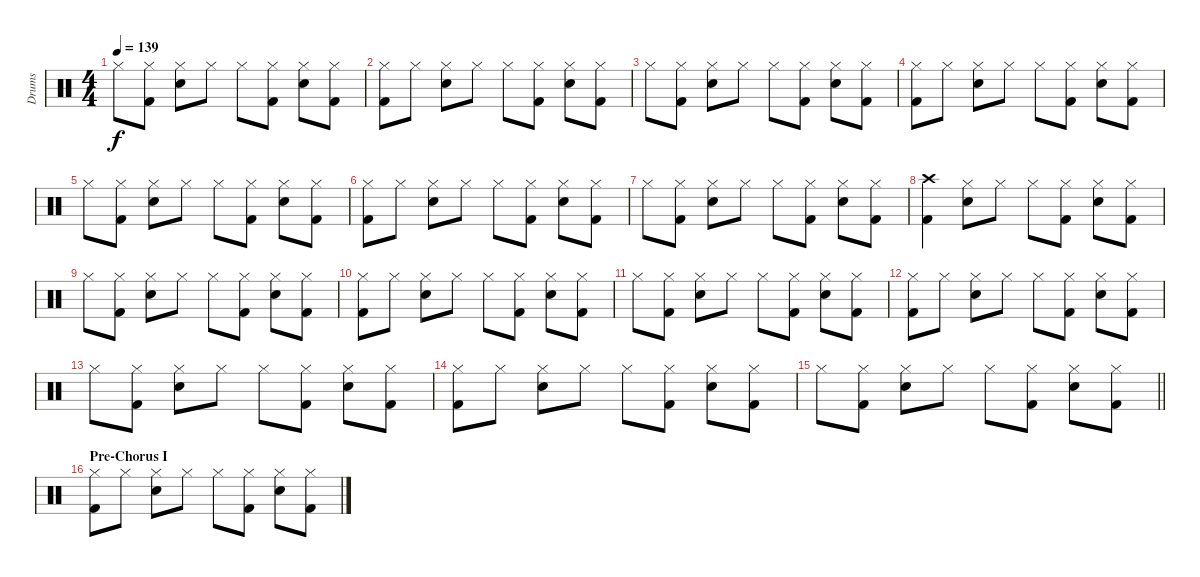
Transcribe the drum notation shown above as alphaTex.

\track ("Drums" "Drums") {instrument percussion}
\staff {score}
\articulation defaults
\ts (4 4)
\tempo 139
\clef neutral
\ks c "Hi-Hat (closed)".8{dy f}
("Hi-Hat (closed)" "Kick (hit) 2").8 ("Hi-Hat (closed)" "Snare (hit) 2").8 "Hi-Hat (closed)".8 "Hi-Hat (closed)".8 ("Hi-Hat (closed)" "Kick (hit) 2").8 ("Hi-Hat (closed)" "Snare (hit) 2").8 ("Hi-Hat (closed)" "Kick (hit) 2").8 |
("Hi-Hat (closed)" "Kick (hit) 2").8 "Hi-Hat (closed)".8 ("Hi-Hat (closed)" "Snare (hit) 2").8 "Hi-Hat (closed)".8 "Hi-Hat (closed)".8 ("Hi-Hat (closed)" "Kick (hit) 2").8 ("Hi-Hat (closed)" "Snare (hit) 2").8 ("Hi-Hat (closed)" "Kick (hit) 2").8 |
"Hi-Hat (closed)".8 ("Hi-Hat (closed)" "Kick (hit) 2").8 ("Hi-Hat (closed)" "Snare (hit) 2").8 "Hi-Hat (closed)".8 "Hi-Hat (closed)".8 ("Hi-Hat (closed)" "Kick (hit) 2").8 ("Hi-Hat (closed)" "Snare (hit) 2").8 ("Hi-Hat (closed)" "Kick (hit) 2").8 |
("Hi-Hat (closed)" "Kick (hit) 2").8 "Hi-Hat (closed)".8 ("Hi-Hat (closed)" "Snare (hit) 2").8 "Hi-Hat (closed)".8 "Hi-Hat (closed)".8 ("Hi-Hat (closed)" "Kick (hit) 2").8 ("Hi-Hat (closed)" "Snare (hit) 2").8 ("Hi-Hat (closed)" "Kick (hit) 2").8 |
"Hi-Hat (closed)".8 ("Hi-Hat (closed)" "Kick (hit) 2").8 ("Hi-Hat (closed)" "Snare (hit) 2").8 "Hi-Hat (closed)".8 "Hi-Hat (closed)".8 ("Hi-Hat (closed)" "Kick (hit) 2").8 ("Hi-Hat (closed)" "Snare (hit) 2").8 ("Hi-Hat (closed)" "Kick (hit) 2").8 |
("Hi-Hat (closed)" "Kick (hit) 2").8 "Hi-Hat (closed)".8 ("Hi-Hat (closed)" "Snare (hit) 2").8 "Hi-Hat (closed)".8 "Hi-Hat (closed)".8 ("Hi-Hat (closed)" "Kick (hit) 2").8 ("Hi-Hat (closed)" "Snare (hit) 2").8 ("Hi-Hat (closed)" "Kick (hit) 2").8 |
"Hi-Hat (closed)".8 ("Hi-Hat (closed)" "Kick (hit) 2").8 ("Hi-Hat (closed)" "Snare (hit) 2").8 "Hi-Hat (closed)".8 "Hi-Hat (closed)".8 ("Hi-Hat (closed)" "Kick (hit) 2").8 ("Hi-Hat (closed)" "Snare (hit) 2").8 ("Hi-Hat (closed)" "Kick (hit) 2").8 |
("Crash high (hit)" "Kick (hit) 2").4 ("Hi-Hat (closed)" "Snare (hit) 2").8 "Hi-Hat (closed)".8 "Hi-Hat (closed)".8 ("Hi-Hat (closed)" "Kick (hit) 2").8 ("Hi-Hat (closed)" "Snare (hit) 2").8 ("Hi-Hat (closed)" "Kick (hit) 2").8 |
"Hi-Hat (closed)".8 ("Hi-Hat (closed)" "Kick (hit) 2").8 ("Hi-Hat (closed)" "Snare (hit) 2").8 "Hi-Hat (closed)".8 "Hi-Hat (closed)".8 ("Hi-Hat (closed)" "Kick (hit) 2").8 ("Hi-Hat (closed)" "Snare (hit) 2").8 ("Hi-Hat (closed)" "Kick (hit) 2").8 |
("Hi-Hat (closed)" "Kick (hit) 2").8 "Hi-Hat (closed)".8 ("Hi-Hat (closed)" "Snare (hit) 2").8 "Hi-Hat (closed)".8 "Hi-Hat (closed)".8 ("Hi-Hat (closed)" "Kick (hit) 2").8 ("Hi-Hat (closed)" "Snare (hit) 2").8 ("Hi-Hat (closed)" "Kick (hit) 2").8 |
"Hi-Hat (closed)".8 ("Hi-Hat (closed)" "Kick (hit) 2").8 ("Hi-Hat (closed)" "Snare (hit) 2").8 "Hi-Hat (closed)".8 "Hi-Hat (closed)".8 ("Hi-Hat (closed)" "Kick (hit) 2").8 ("Hi-Hat (closed)" "Snare (hit) 2").8 ("Hi-Hat (closed)" "Kick (hit) 2").8 |
("Hi-Hat (closed)" "Kick (hit) 2").8 "Hi-Hat (closed)".8 ("Hi-Hat (closed)" "Snare (hit) 2").8 "Hi-Hat (closed)".8 "Hi-Hat (closed)".8 ("Hi-Hat (closed)" "Kick (hit) 2").8 ("Hi-Hat (closed)" "Snare (hit) 2").8 ("Hi-Hat (closed)" "Kick (hit) 2").8 |
"Hi-Hat (closed)".8 ("Hi-Hat (closed)" "Kick (hit) 2").8 ("Hi-Hat (closed)" "Snare (hit) 2").8 "Hi-Hat (closed)".8 "Hi-Hat (closed)".8 ("Hi-Hat (closed)" "Kick (hit) 2").8 ("Hi-Hat (closed)" "Snare (hit) 2").8 ("Hi-Hat (closed)" "Kick (hit) 2").8 |
("Hi-Hat (closed)" "Kick (hit) 2").8 "Hi-Hat (closed)".8 ("Hi-Hat (closed)" "Snare (hit) 2").8 "Hi-Hat (closed)".8 "Hi-Hat (closed)".8 ("Hi-Hat (closed)" "Kick (hit) 2").8 ("Hi-Hat (closed)" "Snare (hit) 2").8 ("Hi-Hat (closed)" "Kick (hit) 2").8 |
\barLineRight lightlight "Hi-Hat (closed)".8
("Hi-Hat (closed)" "Kick (hit) 2").8 ("Hi-Hat (closed)" "Snare (hit) 2").8 "Hi-Hat (closed)".8 "Hi-Hat (closed)".8 ("Hi-Hat (closed)" "Kick (hit) 2").8 ("Hi-Hat (closed)" "Snare (hit) 2").8 ("Hi-Hat (closed)" "Kick (hit) 2").8 |
\section ("" "Pre-Chorus I")
("Hi-Hat (closed)" "Kick (hit) 2").8 "Hi-Hat (closed)".8 ("Hi-Hat (closed)" "Snare (hit) 2").8 "Hi-Hat (closed)".8 "Hi-Hat (closed)".8 ("Hi-Hat (closed)" "Kick (hit) 2").8 ("Hi-Hat (closed)" "Snare (hit) 2").8 ("Hi-Hat (closed)" "Kick (hit) 2").8
